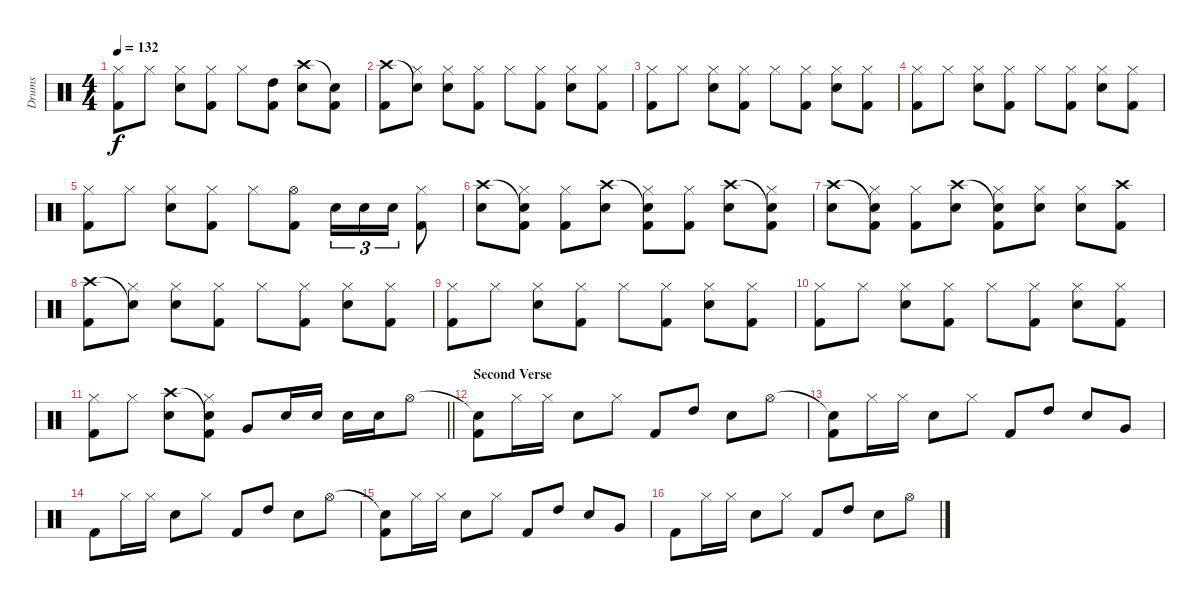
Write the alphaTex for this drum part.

\track ("Drums" "Drums") {instrument percussion}
\staff {score}
\articulation defaults
\ts (4 4)
\tempo 132
\clef neutral
\ks c
("Hi-Hat (closed)" "Kick (hit) 2").8{dy f} "Hi-Hat (closed)".8 ("Hi-Hat (closed)" "Snare (hit) 2").8 ("Hi-Hat (closed)" "Kick (hit) 2").8 "Hi-Hat (closed)".8 ("High Tom (hit)" "Kick (hit) 2").8 ("Crash high (hit)" "Snare (hit) 2").8 ("Snare (hit)"{t} "Kick (hit) 2").8 |
("Crash high (hit)" "Kick (hit) 2").8 ("Snare (hit)"{t} "Hi-Hat (closed)").8 ("Hi-Hat (closed)" "Snare (hit) 2").8 ("Hi-Hat (closed)" "Kick (hit) 2").8 "Hi-Hat (closed)".8 ("Hi-Hat (closed)" "Kick (hit) 2").8 ("Hi-Hat (closed)" "Snare (hit) 2").8 ("Hi-Hat (closed)" "Kick (hit) 2").8 |
("Hi-Hat (closed)" "Kick (hit) 2").8 "Hi-Hat (closed)".8 ("Hi-Hat (closed)" "Snare (hit) 2").8 ("Hi-Hat (closed)" "Kick (hit) 2").8 "Hi-Hat (closed)".8 ("Hi-Hat (closed)" "Kick (hit) 2").8 ("Hi-Hat (closed)" "Snare (hit) 2").8 ("Hi-Hat (closed)" "Kick (hit) 2").8 |
("Hi-Hat (closed)" "Kick (hit) 2").8 "Hi-Hat (closed)".8 ("Hi-Hat (closed)" "Snare (hit) 2").8 ("Hi-Hat (closed)" "Kick (hit) 2").8 "Hi-Hat (closed)".8 ("Hi-Hat (closed)" "Kick (hit) 2").8 ("Hi-Hat (closed)" "Snare (hit) 2").8 ("Hi-Hat (closed)" "Kick (hit) 2").8 |
("Hi-Hat (closed)" "Kick (hit) 2").8 "Hi-Hat (closed)".8 ("Hi-Hat (closed)" "Snare (hit) 2").8 ("Hi-Hat (closed)" "Kick (hit) 2").8 "Hi-Hat (closed)".8 ("Hi-Hat (open)" "Kick (hit) 2").8 "Snare (hit) 2".16{tu (3 2)} "Snare (hit) 2".16{tu (3 2)} "Snare (hit) 2".16{tu (3 2)} ("Hi-Hat (closed)" "Kick (hit) 2").8 |
("Crash high (hit)" "Snare (hit) 2").8 ("Snare (hit)"{t} "Hi-Hat (closed)" "Kick (hit) 2").8 ("Hi-Hat (closed)" "Kick (hit) 2").8 ("Crash high (hit)" "Snare (hit) 2").8 ("Snare (hit)"{t} "Hi-Hat (closed)" "Kick (hit) 2").8 ("Hi-Hat (closed)" "Kick (hit) 2").8 ("Crash high (hit)" "Snare (hit) 2").8 ("Snare (hit)"{t} "Hi-Hat (closed)" "Kick (hit) 2").8 |
("Crash high (hit)" "Snare (hit) 2").8 ("Snare (hit)"{t} "Hi-Hat (closed)" "Kick (hit) 2").8 ("Hi-Hat (closed)" "Kick (hit) 2").8 ("Crash high (hit)" "Snare (hit) 2").8 ("Snare (hit)"{t} "Hi-Hat (closed)" "Kick (hit) 2").8 ("Hi-Hat (closed)" "Snare (hit) 2").8 ("Hi-Hat (closed)" "Snare (hit) 2").8 ("Crash high (hit)" "Kick (hit) 2").8 |
("Crash high (hit)" "Kick (hit) 2").8 ("Snare (hit)"{t} "Hi-Hat (closed)").8 ("Hi-Hat (closed)" "Snare (hit) 2").8 ("Hi-Hat (closed)" "Kick (hit) 2").8 "Hi-Hat (closed)".8 ("Hi-Hat (closed)" "Kick (hit) 2").8 ("Hi-Hat (closed)" "Snare (hit) 2").8 ("Hi-Hat (closed)" "Kick (hit) 2").8 |
("Hi-Hat (closed)" "Kick (hit) 2").8 "Hi-Hat (closed)".8 ("Hi-Hat (closed)" "Snare (hit) 2").8 ("Hi-Hat (closed)" "Kick (hit) 2").8 "Hi-Hat (closed)".8 ("Hi-Hat (closed)" "Kick (hit) 2").8 ("Hi-Hat (closed)" "Snare (hit) 2").8 ("Hi-Hat (closed)" "Kick (hit) 2").8 |
("Hi-Hat (closed)" "Kick (hit) 2").8 "Hi-Hat (closed)".8 ("Hi-Hat (closed)" "Snare (hit) 2").8 ("Hi-Hat (closed)" "Kick (hit) 2").8 "Hi-Hat (closed)".8 ("Hi-Hat (closed)" "Kick (hit) 2").8 ("Hi-Hat (closed)" "Snare (hit) 2").8 ("Hi-Hat (closed)" "Kick (hit) 2").8 |
\barLineRight lightlight
("Hi-Hat (closed)" "Kick (hit) 2").8 "Hi-Hat (closed)".8 ("Crash high (hit)" "Snare (hit) 2").8 ("Snare (hit)"{t} "Hi-Hat (closed)" "Kick (hit) 2").8 "Very Low Tom (hit)".8 "Snare (hit) 2".16 "Snare (hit) 2".16 "Snare (hit) 2".16 "Snare (hit) 2".16 "Hi-Hat (open)".8 |
\section ("" "Second Verse")
("Snare (hit)"{t} "Kick (hit) 2").8 "Hi-Hat (closed)".16 "Hi-Hat (closed)".16 "Snare (hit) 2".8 "Hi-Hat (closed)".8 "Kick (hit) 2".8 "High Tom (hit)".8 "Snare (hit) 2".8 "Hi-Hat (open)".8 |
("Snare (hit)"{t} "Kick (hit) 2").8 "Hi-Hat (closed)".16 "Hi-Hat (closed)".16 "Snare (hit) 2".8 "Hi-Hat (closed)".8 "Kick (hit) 2".8 "High Tom (hit)".8 "Snare (hit) 2".8 "Very Low Tom (hit)".8 |
"Kick (hit) 2".8 "Hi-Hat (closed)".16 "Hi-Hat (closed)".16 "Snare (hit) 2".8 "Hi-Hat (closed)".8 "Kick (hit) 2".8 "High Tom (hit)".8 "Snare (hit) 2".8 "Hi-Hat (open)".8 |
("Snare (hit)"{t} "Kick (hit) 2").8 "Hi-Hat (closed)".16 "Hi-Hat (closed)".16 "Snare (hit) 2".8 "Hi-Hat (closed)".8 "Kick (hit) 2".8 "High Tom (hit)".8 "Snare (hit) 2".8 "Very Low Tom (hit)".8 |
"Kick (hit) 2".8 "Hi-Hat (closed)".16 "Hi-Hat (closed)".16 "Snare (hit) 2".8 "Hi-Hat (closed)".8 "Kick (hit) 2".8 "High Tom (hit)".8 "Snare (hit) 2".8 "Hi-Hat (open)".8
